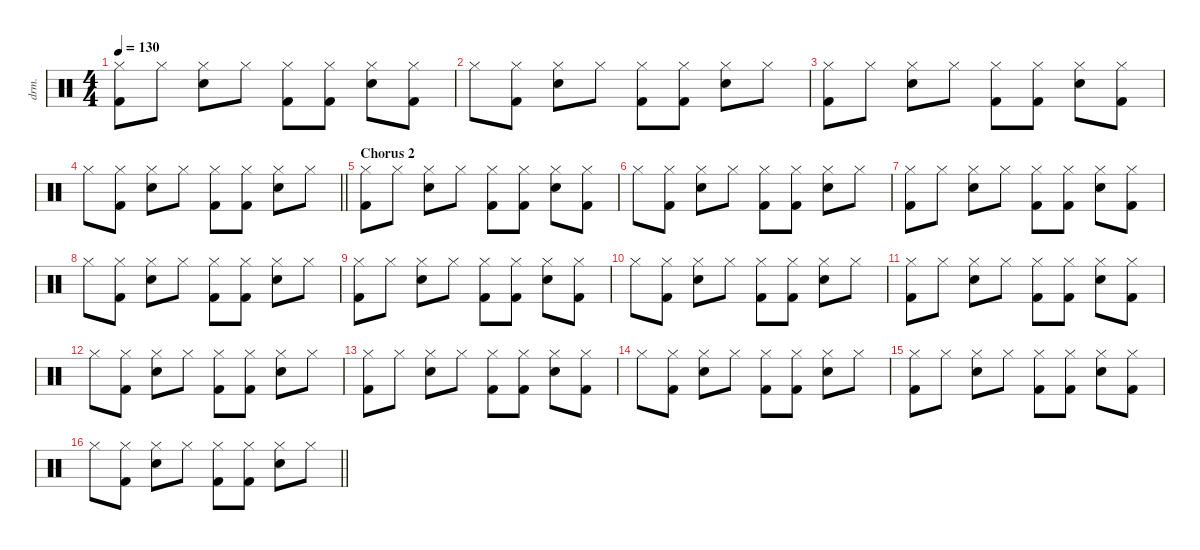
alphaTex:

\defaultSystemsLayout 4
\hideDynamics
\bracketExtendMode nobrackets
\otherSystemsTrackNameOrientation horizontal
\track ("Jimmy" "drm.") {instrument percussion}
\staff {score}
\articulation defaults
\ts (4 4)
\tempo 130
\clef neutral
\ks c
("Hi-Hat (closed)" "Kick (hit) 2").8{dy f beam Down} "Hi-Hat (closed)".8{beam Down} ("Hi-Hat (closed)" "Snare (hit) 2").8{beam Down} "Hi-Hat (closed)".8{beam Down} ("Hi-Hat (closed)" "Kick (hit) 2").8{beam Down} ("Hi-Hat (closed)" "Kick (hit) 2").8{beam Down} ("Hi-Hat (closed)" "Snare (hit) 2").8{beam Down} ("Hi-Hat (closed)" "Kick (hit) 2").8{beam Down} |
"Hi-Hat (closed)".8{beam Down} ("Hi-Hat (closed)" "Kick (hit) 2").8{beam Down} ("Hi-Hat (closed)" "Snare (hit) 2").8{beam Down} "Hi-Hat (closed)".8{beam Down} ("Hi-Hat (closed)" "Kick (hit) 2").8{beam Down} ("Hi-Hat (closed)" "Kick (hit) 2").8{beam Down} ("Hi-Hat (closed)" "Snare (hit) 2").8{beam Down} "Hi-Hat (closed)".8{beam Down} |
("Hi-Hat (closed)" "Kick (hit) 2").8{beam Down} "Hi-Hat (closed)".8{beam Down} ("Hi-Hat (closed)" "Snare (hit) 2").8{beam Down} "Hi-Hat (closed)".8{beam Down} ("Hi-Hat (closed)" "Kick (hit) 2").8{beam Down} ("Hi-Hat (closed)" "Kick (hit) 2").8{beam Down} ("Hi-Hat (closed)" "Snare (hit) 2").8{beam Down} ("Hi-Hat (closed)" "Kick (hit) 2").8{beam Down} |
\barLineRight lightlight "Hi-Hat (closed)".8{beam Down}
("Hi-Hat (closed)" "Kick (hit) 2").8{beam Down} ("Hi-Hat (closed)" "Snare (hit) 2").8{beam Down} "Hi-Hat (closed)".8{beam Down} ("Hi-Hat (closed)" "Kick (hit) 2").8{beam Down} ("Hi-Hat (closed)" "Kick (hit) 2").8{beam Down} ("Hi-Hat (closed)" "Snare (hit) 2").8{beam Down} "Hi-Hat (closed)".8{beam Down} |
\section ("" "Chorus 2")
("Hi-Hat (closed)" "Kick (hit) 2").8{beam Down} "Hi-Hat (closed)".8{beam Down} ("Hi-Hat (closed)" "Snare (hit) 2").8{beam Down} "Hi-Hat (closed)".8{beam Down} ("Hi-Hat (closed)" "Kick (hit) 2").8{beam Down} ("Hi-Hat (closed)" "Kick (hit) 2").8{beam Down} ("Hi-Hat (closed)" "Snare (hit) 2").8{beam Down} ("Hi-Hat (closed)" "Kick (hit) 2").8{beam Down} |
"Hi-Hat (closed)".8{beam Down} ("Hi-Hat (closed)" "Kick (hit) 2").8{beam Down} ("Hi-Hat (closed)" "Snare (hit) 2").8{beam Down} "Hi-Hat (closed)".8{beam Down} ("Hi-Hat (closed)" "Kick (hit) 2").8{beam Down} ("Hi-Hat (closed)" "Kick (hit) 2").8{beam Down} ("Hi-Hat (closed)" "Snare (hit) 2").8{beam Down} "Hi-Hat (closed)".8{beam Down} |
("Hi-Hat (closed)" "Kick (hit) 2").8{beam Down} "Hi-Hat (closed)".8{beam Down} ("Hi-Hat (closed)" "Snare (hit) 2").8{beam Down} "Hi-Hat (closed)".8{beam Down} ("Hi-Hat (closed)" "Kick (hit) 2").8{beam Down} ("Hi-Hat (closed)" "Kick (hit) 2").8{beam Down} ("Hi-Hat (closed)" "Snare (hit) 2").8{beam Down} ("Hi-Hat (closed)" "Kick (hit) 2").8{beam Down} |
"Hi-Hat (closed)".8{beam Down} ("Hi-Hat (closed)" "Kick (hit) 2").8{beam Down} ("Hi-Hat (closed)" "Snare (hit) 2").8{beam Down} "Hi-Hat (closed)".8{beam Down} ("Hi-Hat (closed)" "Kick (hit) 2").8{beam Down} ("Hi-Hat (closed)" "Kick (hit) 2").8{beam Down} ("Hi-Hat (closed)" "Snare (hit) 2").8{beam Down} "Hi-Hat (closed)".8{beam Down} |
("Hi-Hat (closed)" "Kick (hit) 2").8{beam Down} "Hi-Hat (closed)".8{beam Down} ("Hi-Hat (closed)" "Snare (hit) 2").8{beam Down} "Hi-Hat (closed)".8{beam Down} ("Hi-Hat (closed)" "Kick (hit) 2").8{beam Down} ("Hi-Hat (closed)" "Kick (hit) 2").8{beam Down} ("Hi-Hat (closed)" "Snare (hit) 2").8{beam Down} ("Hi-Hat (closed)" "Kick (hit) 2").8{beam Down} |
"Hi-Hat (closed)".8{beam Down} ("Hi-Hat (closed)" "Kick (hit) 2").8{beam Down} ("Hi-Hat (closed)" "Snare (hit) 2").8{beam Down} "Hi-Hat (closed)".8{beam Down} ("Hi-Hat (closed)" "Kick (hit) 2").8{beam Down} ("Hi-Hat (closed)" "Kick (hit) 2").8{beam Down} ("Hi-Hat (closed)" "Snare (hit) 2").8{beam Down} "Hi-Hat (closed)".8{beam Down} |
("Hi-Hat (closed)" "Kick (hit) 2").8{beam Down} "Hi-Hat (closed)".8{beam Down} ("Hi-Hat (closed)" "Snare (hit) 2").8{beam Down} "Hi-Hat (closed)".8{beam Down} ("Hi-Hat (closed)" "Kick (hit) 2").8{beam Down} ("Hi-Hat (closed)" "Kick (hit) 2").8{beam Down} ("Hi-Hat (closed)" "Snare (hit) 2").8{beam Down} ("Hi-Hat (closed)" "Kick (hit) 2").8{beam Down} |
"Hi-Hat (closed)".8{beam Down} ("Hi-Hat (closed)" "Kick (hit) 2").8{beam Down} ("Hi-Hat (closed)" "Snare (hit) 2").8{beam Down} "Hi-Hat (closed)".8{beam Down} ("Hi-Hat (closed)" "Kick (hit) 2").8{beam Down} ("Hi-Hat (closed)" "Kick (hit) 2").8{beam Down} ("Hi-Hat (closed)" "Snare (hit) 2").8{beam Down} "Hi-Hat (closed)".8{beam Down} |
("Hi-Hat (closed)" "Kick (hit) 2").8{beam Down} "Hi-Hat (closed)".8{beam Down} ("Hi-Hat (closed)" "Snare (hit) 2").8{beam Down} "Hi-Hat (closed)".8{beam Down} ("Hi-Hat (closed)" "Kick (hit) 2").8{beam Down} ("Hi-Hat (closed)" "Kick (hit) 2").8{beam Down} ("Hi-Hat (closed)" "Snare (hit) 2").8{beam Down} ("Hi-Hat (closed)" "Kick (hit) 2").8{beam Down} |
"Hi-Hat (closed)".8{beam Down} ("Hi-Hat (closed)" "Kick (hit) 2").8{beam Down} ("Hi-Hat (closed)" "Snare (hit) 2").8{beam Down} "Hi-Hat (closed)".8{beam Down} ("Hi-Hat (closed)" "Kick (hit) 2").8{beam Down} ("Hi-Hat (closed)" "Kick (hit) 2").8{beam Down} ("Hi-Hat (closed)" "Snare (hit) 2").8{beam Down} "Hi-Hat (closed)".8{beam Down} |
("Hi-Hat (closed)" "Kick (hit) 2").8{beam Down} "Hi-Hat (closed)".8{beam Down} ("Hi-Hat (closed)" "Snare (hit) 2").8{beam Down} "Hi-Hat (closed)".8{beam Down} ("Hi-Hat (closed)" "Kick (hit) 2").8{beam Down} ("Hi-Hat (closed)" "Kick (hit) 2").8{beam Down} ("Hi-Hat (closed)" "Snare (hit) 2").8{beam Down} ("Hi-Hat (closed)" "Kick (hit) 2").8{beam Down} |
\barLineRight lightlight "Hi-Hat (closed)".8{beam Down}
("Hi-Hat (closed)" "Kick (hit) 2").8{beam Down} ("Hi-Hat (closed)" "Snare (hit) 2").8{beam Down} "Hi-Hat (closed)".8{beam Down} ("Hi-Hat (closed)" "Kick (hit) 2").8{beam Down} ("Hi-Hat (closed)" "Kick (hit) 2").8{beam Down} ("Hi-Hat (closed)" "Snare (hit) 2").8{beam Down} "Hi-Hat (closed)".8{beam Down}
